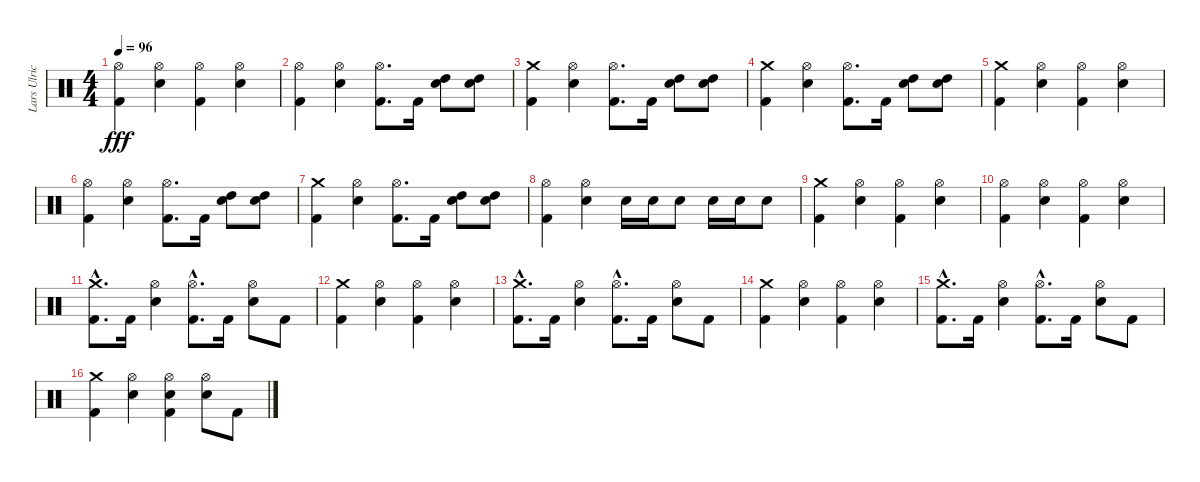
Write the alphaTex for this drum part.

\track ("Lars Ulrich" "Lars Ulric") {instrument percussion}
\staff {score}
\articulation defaults
\ts (4 4)
\tempo 96
\clef neutral
\ks c
("Hi-Hat (open)" "Kick (hit) 2").4{dy fff} ("Hi-Hat (open)" "Snare (hit) 2").4 ("Hi-Hat (open)" "Kick (hit) 2").4 ("Hi-Hat (open)" "Snare (hit) 2").4 |
("Hi-Hat (open)" "Kick (hit) 2").4 ("Hi-Hat (open)" "Snare (hit) 2").4 ("Hi-Hat (open)" "Kick (hit) 2").8{d} "Kick (hit) 2".16 ("High Tom (hit)" "Snare (hit) 2").8 ("High Tom (hit)" "Snare (hit) 2").8 |
("Kick (hit) 2" "Crash medium (hit)").4 ("Hi-Hat (open)" "Snare (hit) 2").4 ("Hi-Hat (open)" "Kick (hit) 2").8{d} "Kick (hit) 2".16 ("High Tom (hit)" "Snare (hit) 2").8 ("High Tom (hit)" "Snare (hit) 2").8 |
("Kick (hit) 2" "Crash medium (hit)").4 ("Hi-Hat (open)" "Snare (hit) 2").4 ("Hi-Hat (open)" "Kick (hit) 2").8{d} "Kick (hit) 2".16 ("High Tom (hit)" "Snare (hit) 2").8 ("High Tom (hit)" "Snare (hit) 2").8 |
("Kick (hit) 2" "Crash medium (hit)").4 ("Hi-Hat (open)" "Snare (hit) 2").4 ("Hi-Hat (open)" "Kick (hit) 2").4 ("Hi-Hat (open)" "Snare (hit) 2").4 |
("Kick (hit) 2" "Hi-Hat (open)").4 ("Hi-Hat (open)" "Snare (hit) 2").4 ("Hi-Hat (open)" "Kick (hit) 2").8{d} "Kick (hit) 2".16 ("High Tom (hit)" "Snare (hit) 2").8 ("High Tom (hit)" "Snare (hit) 2").8 |
("Kick (hit) 2" "Crash medium (hit)").4 ("Hi-Hat (open)" "Snare (hit) 2").4 ("Hi-Hat (open)" "Kick (hit) 2").8{d} "Kick (hit) 2".16 ("High Tom (hit)" "Snare (hit) 2").8 ("High Tom (hit)" "Snare (hit) 2").8 |
("Hi-Hat (open)" "Kick (hit) 2").4 ("Hi-Hat (open)" "Snare (hit) 2").4 "Snare (hit) 2".16 "Snare (hit) 2".16 "Snare (hit) 2".8 "Snare (hit) 2".16 "Snare (hit) 2".16 "Snare (hit) 2".8 |
("Kick (hit) 2" "Crash medium (hit)").4 ("Hi-Hat (open)" "Snare (hit) 2").4 ("Hi-Hat (open)" "Kick (hit) 2").4 ("Hi-Hat (open)" "Snare (hit) 2").4 |
("Hi-Hat (open)" "Kick (hit) 2").4 ("Hi-Hat (open)" "Snare (hit) 2").4 ("Hi-Hat (open)" "Kick (hit) 2").4 ("Hi-Hat (open)" "Snare (hit) 2").4 |
("Kick (hit) 2"{hac} "Crash medium (hit)").8{d} "Kick (hit) 2".16 ("Snare (hit) 2" "Hi-Hat (open)").4 ("Kick (hit) 2"{hac} "Hi-Hat (open)").8{d} "Kick (hit) 2".16 ("Snare (hit) 2" "Hi-Hat (open)").8 "Kick (hit) 2".8 |
("Kick (hit) 2" "Crash medium (hit)").4 ("Hi-Hat (open)" "Snare (hit) 2").4 ("Hi-Hat (open)" "Kick (hit) 2").4 ("Hi-Hat (open)" "Snare (hit) 2").4 |
("Kick (hit) 2"{hac} "Crash medium (hit)").8{d} "Kick (hit) 2".16 ("Snare (hit) 2" "Hi-Hat (open)").4 ("Kick (hit) 2"{hac} "Hi-Hat (open)").8{d} "Kick (hit) 2".16 ("Snare (hit) 2" "Hi-Hat (open)").8 "Kick (hit) 2".8 |
("Kick (hit) 2" "Crash medium (hit)").4 ("Hi-Hat (open)" "Snare (hit) 2").4 ("Hi-Hat (open)" "Kick (hit) 2").4 ("Hi-Hat (open)" "Snare (hit) 2").4 |
("Kick (hit) 2"{hac} "Crash medium (hit)").8{d} "Kick (hit) 2".16 ("Snare (hit) 2" "Hi-Hat (open)").4 ("Kick (hit) 2"{hac} "Hi-Hat (open)").8{d} "Kick (hit) 2".16 ("Snare (hit) 2" "Hi-Hat (open)").8 "Kick (hit) 2".8 |
("Kick (hit) 2" "Crash medium (hit)").4 ("Hi-Hat (open)" "Snare (hit) 2").4 ("Hi-Hat (open)" "Snare (hit) 2" "Kick (hit) 2").4 ("Hi-Hat (open)" "Snare (hit) 2").8 "Kick (hit) 2".8
